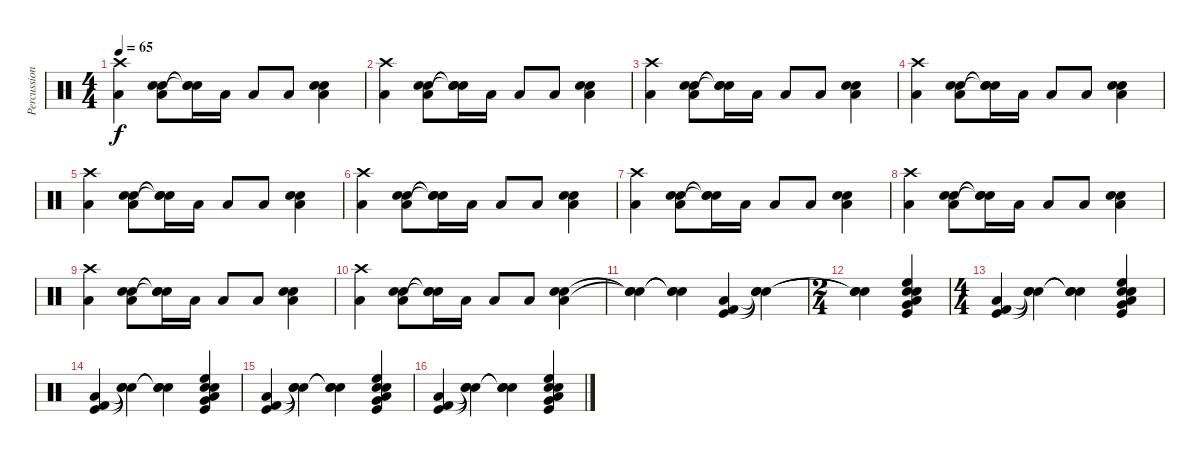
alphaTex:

\track ("Percussion" "Percussion") {instrument percussion}
\staff {score}
\articulation defaults
\ts (4 4)
\tempo 65
\clef neutral
\ks c
("Crash high (hit)" "Low Tom (hit)").4{dy f} ("Snare (hit) 2" "Electric Snare (hit)" "Low Tom (hit)").8 ("Snare (hit)"{t} "Snare (hit)"{t} "Snare (hit)"{t}).16 "Low Tom (hit)".16 "Low Tom (hit)".8 "Low Tom (hit)".8 ("Snare (hit) 2" "Electric Snare (hit)" "Low Tom (hit)").4 |
("Crash high (hit)" "Low Tom (hit)").4 ("Snare (hit) 2" "Electric Snare (hit)" "Low Tom (hit)").8 ("Snare (hit)"{t} "Snare (hit)"{t} "Snare (hit)"{t}).16 "Low Tom (hit)".16 "Low Tom (hit)".8 "Low Tom (hit)".8 ("Snare (hit) 2" "Electric Snare (hit)" "Low Tom (hit)").4 |
("Crash high (hit)" "Low Tom (hit)").4 ("Snare (hit) 2" "Electric Snare (hit)" "Low Tom (hit)").8 ("Snare (hit)"{t} "Snare (hit)"{t} "Snare (hit)"{t}).16 "Low Tom (hit)".16 "Low Tom (hit)".8 "Low Tom (hit)".8 ("Snare (hit) 2" "Electric Snare (hit)" "Low Tom (hit)").4 |
("Crash high (hit)" "Low Tom (hit)").4 ("Snare (hit) 2" "Electric Snare (hit)" "Low Tom (hit)").8 ("Snare (hit)"{t} "Snare (hit)"{t} "Snare (hit)"{t}).16 "Low Tom (hit)".16 "Low Tom (hit)".8 "Low Tom (hit)".8 ("Snare (hit) 2" "Electric Snare (hit)" "Low Tom (hit)").4 |
("Crash high (hit)" "Low Tom (hit)").4 ("Snare (hit) 2" "Electric Snare (hit)" "Low Tom (hit)").8 ("Snare (hit)"{t} "Snare (hit)"{t} "Snare (hit)"{t}).16 "Low Tom (hit)".16 "Low Tom (hit)".8 "Low Tom (hit)".8 ("Snare (hit) 2" "Electric Snare (hit)" "Low Tom (hit)").4 |
("Crash high (hit)" "Low Tom (hit)").4 ("Snare (hit) 2" "Electric Snare (hit)" "Low Tom (hit)").8 ("Snare (hit)"{t} "Snare (hit)"{t} "Snare (hit)"{t}).16 "Low Tom (hit)".16 "Low Tom (hit)".8 "Low Tom (hit)".8 ("Snare (hit) 2" "Electric Snare (hit)" "Low Tom (hit)").4 |
("Crash high (hit)" "Low Tom (hit)").4 ("Snare (hit) 2" "Electric Snare (hit)" "Low Tom (hit)").8 ("Snare (hit)"{t} "Snare (hit)"{t} "Snare (hit)"{t}).16 "Low Tom (hit)".16 "Low Tom (hit)".8 "Low Tom (hit)".8 ("Snare (hit) 2" "Electric Snare (hit)" "Low Tom (hit)").4 |
("Crash high (hit)" "Low Tom (hit)").4 ("Snare (hit) 2" "Electric Snare (hit)" "Low Tom (hit)").8 ("Snare (hit)"{t} "Snare (hit)"{t} "Snare (hit)"{t}).16 "Low Tom (hit)".16 "Low Tom (hit)".8 "Low Tom (hit)".8 ("Snare (hit) 2" "Electric Snare (hit)" "Low Tom (hit)").4 |
("Crash high (hit)" "Low Tom (hit)").4 ("Snare (hit) 2" "Electric Snare (hit)" "Low Tom (hit)").8 ("Snare (hit)"{t} "Snare (hit)"{t} "Snare (hit)"{t}).16 "Low Tom (hit)".16 "Low Tom (hit)".8 "Low Tom (hit)".8 ("Snare (hit) 2" "Electric Snare (hit)" "Low Tom (hit)").4 |
("Crash high (hit)" "Low Tom (hit)").4 ("Snare (hit) 2" "Electric Snare (hit)" "Low Tom (hit)").8 ("Snare (hit)"{t} "Snare (hit)"{t} "Snare (hit)"{t}).16 "Low Tom (hit)".16 "Low Tom (hit)".8 "Low Tom (hit)".8 ("Snare (hit) 2" "Electric Snare (hit)" "Low Tom (hit)").4 |
("Snare (hit)"{t} "Snare (hit)"{t} "Snare (hit)"{t}).4 ("Snare (hit)"{t} "Snare (hit)"{t} "Snare (hit)"{t}).4 ("Low Floor Tom (hit)" "Kick (hit)" "Kick (hit) 2").4 ("Snare (hit)"{t} "Snare (hit)"{t} "Snare (hit)"{t}).4 |
\ts (2 4)
("Snare (hit)"{t} "Snare (hit)"{t} "Snare (hit)"{t}).4 ("Electric Snare (hit)" "Kick (hit)" "High Floor Tom (hit)" "Hand Clap (hit)" "Low Tom (hit)" "Very Low Tom (hit)").4 |
\ts (4 4)
("Low Floor Tom (hit)" "Kick (hit)" "Kick (hit) 2").4 ("Snare (hit)"{t} "Snare (hit)"{t} "Snare (hit)"{t}).4 ("Snare (hit)"{t} "Snare (hit)"{t} "Snare (hit)"{t}).4 ("Electric Snare (hit)" "Kick (hit)" "High Floor Tom (hit)" "Hand Clap (hit)" "Low Tom (hit)" "Very Low Tom (hit)").4 |
("Low Floor Tom (hit)" "Kick (hit)" "Kick (hit) 2").4 ("Snare (hit)"{t} "Snare (hit)"{t} "Snare (hit)"{t}).4 ("Snare (hit)"{t} "Snare (hit)"{t} "Snare (hit)"{t}).4 ("Electric Snare (hit)" "Kick (hit)" "High Floor Tom (hit)" "Hand Clap (hit)" "Low Tom (hit)" "Very Low Tom (hit)").4 |
("Low Floor Tom (hit)" "Kick (hit)" "Kick (hit) 2").4 ("Snare (hit)"{t} "Snare (hit)"{t} "Snare (hit)"{t}).4 ("Snare (hit)"{t} "Snare (hit)"{t} "Snare (hit)"{t}).4 ("Electric Snare (hit)" "Kick (hit)" "High Floor Tom (hit)" "Hand Clap (hit)" "Low Tom (hit)" "Very Low Tom (hit)").4 |
("Low Floor Tom (hit)" "Kick (hit)" "Kick (hit) 2").4 ("Snare (hit)"{t} "Snare (hit)"{t} "Snare (hit)"{t}).4 ("Snare (hit)"{t} "Snare (hit)"{t} "Snare (hit)"{t}).4 ("Electric Snare (hit)" "Kick (hit)" "High Floor Tom (hit)" "Hand Clap (hit)" "Low Tom (hit)" "Very Low Tom (hit)").4
